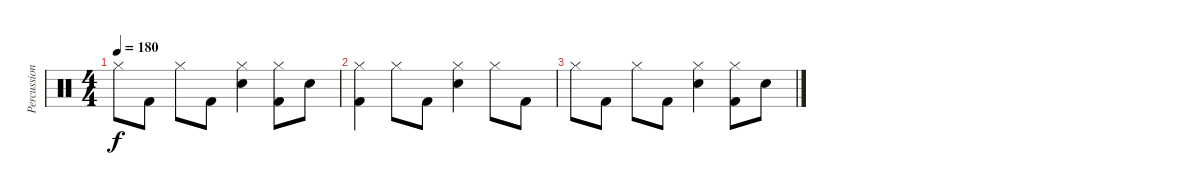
\track ("Percussion" "Percussion") {instrument percussion}
\staff {score}
\articulation defaults
\ts (4 4)
\tempo 180
\clef neutral
\ks c "Hi-Hat (closed)".8{dy f} "Kick (hit) 2".8 "Hi-Hat (closed)".8 "Kick (hit) 2".8
("Hi-Hat (closed)" "Snare (hit) 2").4 ("Hi-Hat (closed)" "Kick (hit) 2").8 "Snare (hit) 2".8 |
("Hi-Hat (closed)" "Kick (hit) 2").4 "Hi-Hat (closed)".8 "Kick (hit) 2".8 ("Hi-Hat (closed)" "Snare (hit) 2").4 "Hi-Hat (closed)".8 "Kick (hit) 2".8 |
"Hi-Hat (closed)".8 "Kick (hit) 2".8 "Hi-Hat (closed)".8 "Kick (hit) 2".8 ("Hi-Hat (closed)" "Snare (hit) 2").4 ("Hi-Hat (closed)" "Kick (hit) 2").8 "Snare (hit) 2".8
